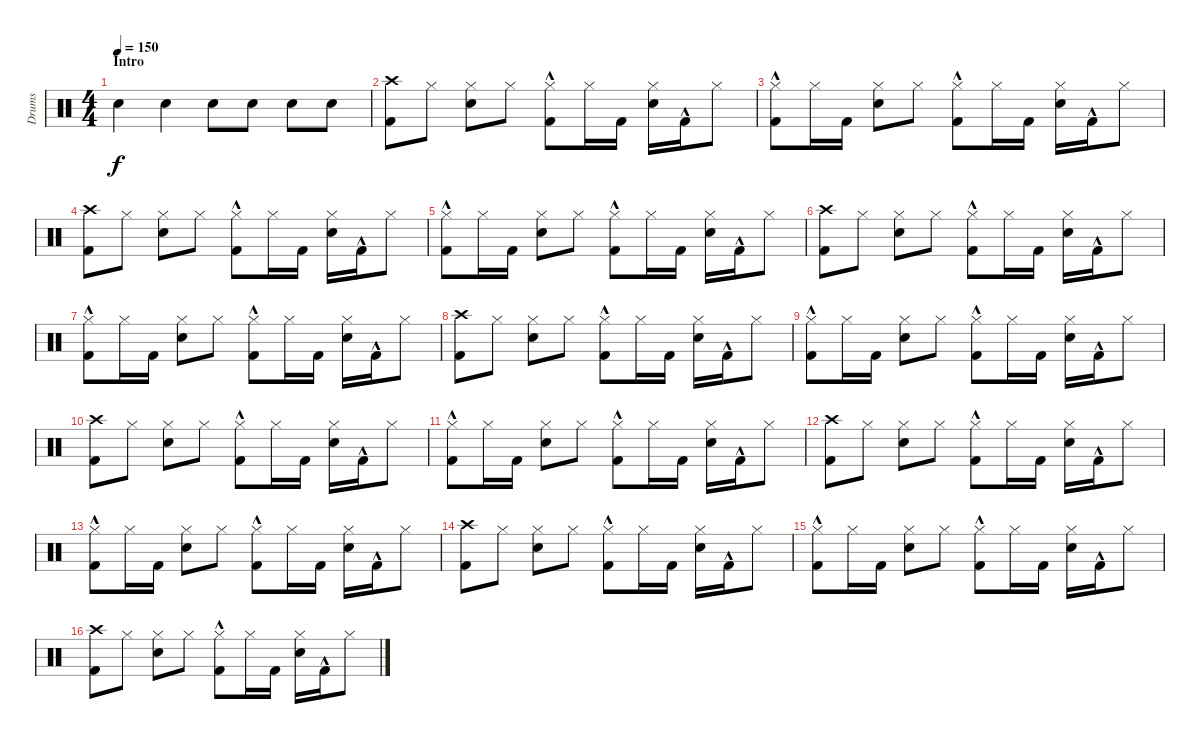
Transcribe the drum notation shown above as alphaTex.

\track ("Drums" "Drums") {instrument percussion}
\staff {score}
\articulation defaults
\ts (4 4)
\section ("" "Intro")
\tempo 150
\clef neutral
\ks c "Electric Snare (hit)".4{dy f} "Electric Snare (hit)".4 "Electric Snare (hit)".8 "Electric Snare (hit)".8 "Electric Snare (hit)".8 "Electric Snare (hit)".8
|
("Crash high (hit)" "Kick (hit) 2").8 "Hi-Hat (closed)".8 ("Hi-Hat (closed)" "Electric Snare (hit)").8 "Hi-Hat (closed)".8 ("Hi-Hat (closed)" "Kick (hit) 2"{hac}).8 "Hi-Hat (closed)".16 "Kick (hit) 2".16 ("Hi-Hat (closed)" "Electric Snare (hit)").16 "Kick (hit) 2"{hac}.16 "Hi-Hat (closed)".8 |
("Hi-Hat (closed)" "Kick (hit) 2"{hac}).8 "Hi-Hat (closed)".16 "Kick (hit) 2".16 ("Hi-Hat (closed)" "Electric Snare (hit)").8 "Hi-Hat (closed)".8 ("Hi-Hat (closed)" "Kick (hit) 2"{hac}).8 "Hi-Hat (closed)".16 "Kick (hit) 2".16 ("Hi-Hat (closed)" "Electric Snare (hit)").16 "Kick (hit) 2"{hac}.16 "Hi-Hat (closed)".8 |
("Crash high (hit)" "Kick (hit) 2").8 "Hi-Hat (closed)".8 ("Hi-Hat (closed)" "Electric Snare (hit)").8 "Hi-Hat (closed)".8 ("Hi-Hat (closed)" "Kick (hit) 2"{hac}).8 "Hi-Hat (closed)".16 "Kick (hit) 2".16 ("Hi-Hat (closed)" "Electric Snare (hit)").16 "Kick (hit) 2"{hac}.16 "Hi-Hat (closed)".8 |
("Hi-Hat (closed)" "Kick (hit) 2"{hac}).8 "Hi-Hat (closed)".16 "Kick (hit) 2".16 ("Hi-Hat (closed)" "Electric Snare (hit)").8 "Hi-Hat (closed)".8 ("Hi-Hat (closed)" "Kick (hit) 2"{hac}).8 "Hi-Hat (closed)".16 "Kick (hit) 2".16 ("Hi-Hat (closed)" "Electric Snare (hit)").16 "Kick (hit) 2"{hac}.16 "Hi-Hat (closed)".8 |
("Crash high (hit)" "Kick (hit) 2").8 "Hi-Hat (closed)".8 ("Hi-Hat (closed)" "Electric Snare (hit)").8 "Hi-Hat (closed)".8 ("Hi-Hat (closed)" "Kick (hit) 2"{hac}).8 "Hi-Hat (closed)".16 "Kick (hit) 2".16 ("Hi-Hat (closed)" "Electric Snare (hit)").16 "Kick (hit) 2"{hac}.16 "Hi-Hat (closed)".8 |
("Hi-Hat (closed)" "Kick (hit) 2"{hac}).8 "Hi-Hat (closed)".16 "Kick (hit) 2".16 ("Hi-Hat (closed)" "Electric Snare (hit)").8 "Hi-Hat (closed)".8 ("Hi-Hat (closed)" "Kick (hit) 2"{hac}).8 "Hi-Hat (closed)".16 "Kick (hit) 2".16 ("Hi-Hat (closed)" "Electric Snare (hit)").16 "Kick (hit) 2"{hac}.16 "Hi-Hat (closed)".8 |
("Crash high (hit)" "Kick (hit) 2").8 "Hi-Hat (closed)".8 ("Hi-Hat (closed)" "Electric Snare (hit)").8 "Hi-Hat (closed)".8 ("Hi-Hat (closed)" "Kick (hit) 2"{hac}).8 "Hi-Hat (closed)".16 "Kick (hit) 2".16 ("Hi-Hat (closed)" "Electric Snare (hit)").16 "Kick (hit) 2"{hac}.16 "Hi-Hat (closed)".8 |
("Hi-Hat (closed)" "Kick (hit) 2"{hac}).8 "Hi-Hat (closed)".16 "Kick (hit) 2".16 ("Hi-Hat (closed)" "Electric Snare (hit)").8 "Hi-Hat (closed)".8 ("Hi-Hat (closed)" "Kick (hit) 2"{hac}).8 "Hi-Hat (closed)".16 "Kick (hit) 2".16 ("Hi-Hat (closed)" "Electric Snare (hit)").16 "Kick (hit) 2"{hac}.16 "Hi-Hat (closed)".8 |
("Crash high (hit)" "Kick (hit) 2").8 "Hi-Hat (closed)".8 ("Hi-Hat (closed)" "Electric Snare (hit)").8 "Hi-Hat (closed)".8 ("Hi-Hat (closed)" "Kick (hit) 2"{hac}).8 "Hi-Hat (closed)".16 "Kick (hit) 2".16 ("Hi-Hat (closed)" "Electric Snare (hit)").16 "Kick (hit) 2"{hac}.16 "Hi-Hat (closed)".8 |
("Hi-Hat (closed)" "Kick (hit) 2"{hac}).8 "Hi-Hat (closed)".16 "Kick (hit) 2".16 ("Hi-Hat (closed)" "Electric Snare (hit)").8 "Hi-Hat (closed)".8 ("Hi-Hat (closed)" "Kick (hit) 2"{hac}).8 "Hi-Hat (closed)".16 "Kick (hit) 2".16 ("Hi-Hat (closed)" "Electric Snare (hit)").16 "Kick (hit) 2"{hac}.16 "Hi-Hat (closed)".8 |
("Crash high (hit)" "Kick (hit) 2").8 "Hi-Hat (closed)".8 ("Hi-Hat (closed)" "Electric Snare (hit)").8 "Hi-Hat (closed)".8 ("Hi-Hat (closed)" "Kick (hit) 2"{hac}).8 "Hi-Hat (closed)".16 "Kick (hit) 2".16 ("Hi-Hat (closed)" "Electric Snare (hit)").16 "Kick (hit) 2"{hac}.16 "Hi-Hat (closed)".8 |
("Hi-Hat (closed)" "Kick (hit) 2"{hac}).8 "Hi-Hat (closed)".16 "Kick (hit) 2".16 ("Hi-Hat (closed)" "Electric Snare (hit)").8 "Hi-Hat (closed)".8 ("Hi-Hat (closed)" "Kick (hit) 2"{hac}).8 "Hi-Hat (closed)".16 "Kick (hit) 2".16 ("Hi-Hat (closed)" "Electric Snare (hit)").16 "Kick (hit) 2"{hac}.16 "Hi-Hat (closed)".8 |
("Crash high (hit)" "Kick (hit) 2").8 "Hi-Hat (closed)".8 ("Hi-Hat (closed)" "Electric Snare (hit)").8 "Hi-Hat (closed)".8 ("Hi-Hat (closed)" "Kick (hit) 2"{hac}).8 "Hi-Hat (closed)".16 "Kick (hit) 2".16 ("Hi-Hat (closed)" "Electric Snare (hit)").16 "Kick (hit) 2"{hac}.16 "Hi-Hat (closed)".8 |
("Hi-Hat (closed)" "Kick (hit) 2"{hac}).8 "Hi-Hat (closed)".16 "Kick (hit) 2".16 ("Hi-Hat (closed)" "Electric Snare (hit)").8 "Hi-Hat (closed)".8 ("Hi-Hat (closed)" "Kick (hit) 2"{hac}).8 "Hi-Hat (closed)".16 "Kick (hit) 2".16 ("Hi-Hat (closed)" "Electric Snare (hit)").16 "Kick (hit) 2"{hac}.16 "Hi-Hat (closed)".8 |
("Crash high (hit)" "Kick (hit) 2").8 "Hi-Hat (closed)".8 ("Hi-Hat (closed)" "Electric Snare (hit)").8 "Hi-Hat (closed)".8 ("Hi-Hat (closed)" "Kick (hit) 2"{hac}).8 "Hi-Hat (closed)".16 "Kick (hit) 2".16 ("Hi-Hat (closed)" "Electric Snare (hit)").16 "Kick (hit) 2"{hac}.16 "Hi-Hat (closed)".8
